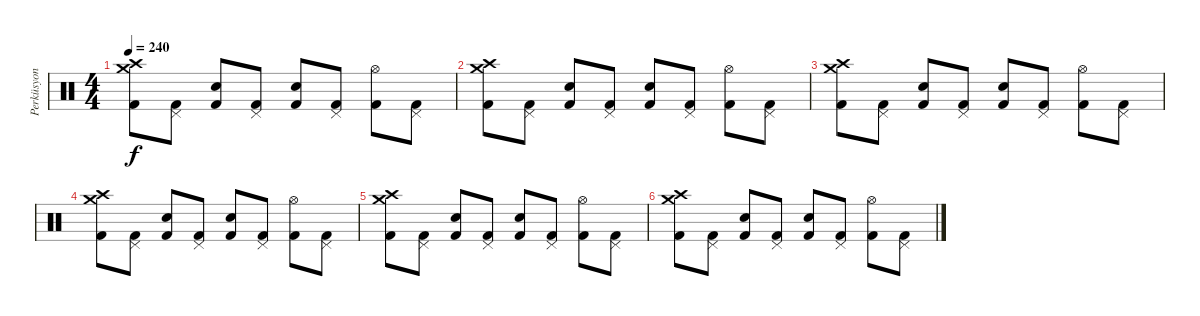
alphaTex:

\track ("Perküsyon" "Perküsyon") {instrument percussion}
\staff {score}
\articulation defaults
\ts (4 4)
\tempo 240
\clef neutral
\ks c
("Crash medium (hit)" "Kick (hit) 2" "Crash high (hit)").8{dy f} ("Kick (hit) 2" "Pedal Hi-Hat (hit)").8 ("Kick (hit) 2" "Snare (hit) 2").8 ("Kick (hit) 2" "Pedal Hi-Hat (hit)").8 ("Kick (hit) 2" "Electric Snare (hit)").8 ("Kick (hit) 2" "Pedal Hi-Hat (hit)").8 ("Kick (hit) 2" "Hi-Hat (open)").8 ("Kick (hit) 2" "Pedal Hi-Hat (hit)").8 |
("Crash medium (hit)" "Kick (hit) 2" "Crash high (hit)").8 ("Kick (hit) 2" "Pedal Hi-Hat (hit)").8 ("Kick (hit) 2" "Snare (hit) 2").8 ("Kick (hit) 2" "Pedal Hi-Hat (hit)").8 ("Kick (hit) 2" "Electric Snare (hit)").8 ("Kick (hit) 2" "Pedal Hi-Hat (hit)").8 ("Kick (hit) 2" "Hi-Hat (open)").8 ("Kick (hit) 2" "Pedal Hi-Hat (hit)").8 |
("Crash medium (hit)" "Kick (hit) 2" "Crash high (hit)").8 ("Kick (hit) 2" "Pedal Hi-Hat (hit)").8 ("Kick (hit) 2" "Snare (hit) 2").8 ("Kick (hit) 2" "Pedal Hi-Hat (hit)").8 ("Kick (hit) 2" "Electric Snare (hit)").8 ("Kick (hit) 2" "Pedal Hi-Hat (hit)").8 ("Kick (hit) 2" "Hi-Hat (open)").8 ("Kick (hit) 2" "Pedal Hi-Hat (hit)").8 |
("Crash medium (hit)" "Kick (hit) 2" "Crash high (hit)").8 ("Kick (hit) 2" "Pedal Hi-Hat (hit)").8 ("Kick (hit) 2" "Snare (hit) 2").8 ("Kick (hit) 2" "Pedal Hi-Hat (hit)").8 ("Kick (hit) 2" "Electric Snare (hit)").8 ("Kick (hit) 2" "Pedal Hi-Hat (hit)").8 ("Kick (hit) 2" "Hi-Hat (open)").8 ("Kick (hit) 2" "Pedal Hi-Hat (hit)").8 |
("Crash medium (hit)" "Kick (hit) 2" "Crash high (hit)").8 ("Kick (hit) 2" "Pedal Hi-Hat (hit)").8 ("Kick (hit) 2" "Snare (hit) 2").8 ("Kick (hit) 2" "Pedal Hi-Hat (hit)").8 ("Kick (hit) 2" "Electric Snare (hit)").8 ("Kick (hit) 2" "Pedal Hi-Hat (hit)").8 ("Kick (hit) 2" "Hi-Hat (open)").8 ("Kick (hit) 2" "Pedal Hi-Hat (hit)").8 |
("Crash medium (hit)" "Kick (hit) 2" "Crash high (hit)").8 ("Kick (hit) 2" "Pedal Hi-Hat (hit)").8 ("Kick (hit) 2" "Snare (hit) 2").8 ("Kick (hit) 2" "Pedal Hi-Hat (hit)").8 ("Kick (hit) 2" "Electric Snare (hit)").8 ("Kick (hit) 2" "Pedal Hi-Hat (hit)").8 ("Kick (hit) 2" "Hi-Hat (open)").8 ("Kick (hit) 2" "Pedal Hi-Hat (hit)").8
